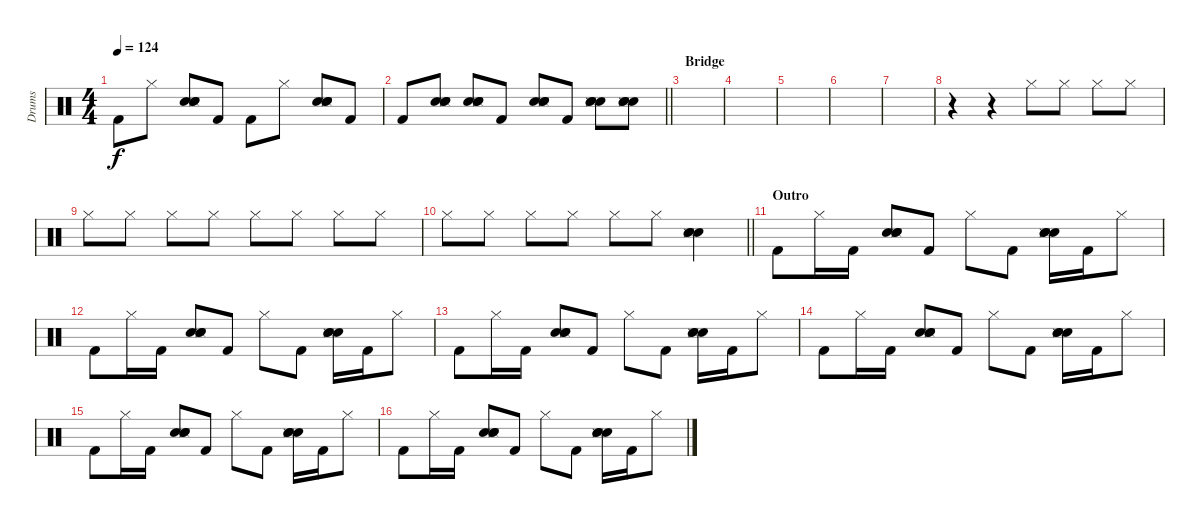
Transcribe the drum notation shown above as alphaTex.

\track ("Drums" "Drums") {instrument percussion}
\staff {score}
\articulation defaults
\ts (4 4)
\tempo 124
\clef neutral
\ks c "Kick (hit) 2".8{dy f} "Hi-Hat (closed)".8
("Snare (hit) 2" "Snare (side stick) 3" "Hand Clap (hit)" "Electric Snare (hit)").8 "Kick (hit) 2".8 "Kick (hit) 2".8 "Hi-Hat (closed)".8 ("Snare (hit) 2" "Snare (side stick) 3" "Hand Clap (hit)" "Electric Snare (hit)").8 "Kick (hit) 2".8 |
\barLineRight lightlight "Kick (hit) 2".8
("Snare (hit) 2" "Snare (side stick) 3" "Hand Clap (hit)" "Electric Snare (hit)").8 ("Snare (hit) 2" "Snare (side stick) 3" "Hand Clap (hit)" "Electric Snare (hit)").8 "Kick (hit) 2".8 ("Snare (hit) 2" "Snare (side stick) 3" "Hand Clap (hit)" "Electric Snare (hit)").8 "Kick (hit) 2".8 ("Snare (hit) 2" "Snare (side stick) 3" "Hand Clap (hit)" "Electric Snare (hit)").8 ("Snare (hit) 2" "Snare (side stick) 3" "Hand Clap (hit)" "Electric Snare (hit)").8 |
\section ("" "Bridge")
|
|
|
|
|
r.4 r.4 "Hi-Hat (closed)".8{volume 16} "Hi-Hat (closed)".8 "Hi-Hat (closed)".8 "Hi-Hat (closed)".8 |
"Hi-Hat (closed)".8 "Hi-Hat (closed)".8 "Hi-Hat (closed)".8 "Hi-Hat (closed)".8 "Hi-Hat (closed)".8 "Hi-Hat (closed)".8 "Hi-Hat (closed)".8 "Hi-Hat (closed)".8 |
\barLineRight lightlight "Hi-Hat (closed)".8 "Hi-Hat (closed)".8 "Hi-Hat (closed)".8 "Hi-Hat (closed)".8 "Hi-Hat (closed)".8 "Hi-Hat (closed)".8
("Snare (hit) 2" "Snare (side stick) 3" "Hand Clap (hit)" "Electric Snare (hit)").4 |
\section ("" "Outro")
"Kick (hit) 2".8 "Hi-Hat (closed)".16 "Kick (hit) 2".16 ("Snare (hit) 2" "Snare (side stick) 3" "Hand Clap (hit)" "Electric Snare (hit)").8 "Kick (hit) 2".8 "Hi-Hat (closed)".8 "Kick (hit) 2".8 ("Snare (hit) 2" "Snare (side stick) 3" "Hand Clap (hit)" "Electric Snare (hit)").16 "Kick (hit) 2".16 "Hi-Hat (closed)".8 |
"Kick (hit) 2".8 "Hi-Hat (closed)".16 "Kick (hit) 2".16 ("Snare (hit) 2" "Snare (side stick) 3" "Hand Clap (hit)" "Electric Snare (hit)").8 "Kick (hit) 2".8 "Hi-Hat (closed)".8 "Kick (hit) 2".8 ("Snare (hit) 2" "Snare (side stick) 3" "Hand Clap (hit)" "Electric Snare (hit)").16 "Kick (hit) 2".16 "Hi-Hat (closed)".8 |
"Kick (hit) 2".8 "Hi-Hat (closed)".16 "Kick (hit) 2".16 ("Snare (hit) 2" "Snare (side stick) 3" "Hand Clap (hit)" "Electric Snare (hit)").8 "Kick (hit) 2".8 "Hi-Hat (closed)".8 "Kick (hit) 2".8 ("Snare (hit) 2" "Snare (side stick) 3" "Hand Clap (hit)" "Electric Snare (hit)").16 "Kick (hit) 2".16 "Hi-Hat (closed)".8 |
"Kick (hit) 2".8 "Hi-Hat (closed)".16 "Kick (hit) 2".16 ("Snare (hit) 2" "Snare (side stick) 3" "Hand Clap (hit)" "Electric Snare (hit)").8 "Kick (hit) 2".8 "Hi-Hat (closed)".8 "Kick (hit) 2".8 ("Snare (hit) 2" "Snare (side stick) 3" "Hand Clap (hit)" "Electric Snare (hit)").16 "Kick (hit) 2".16 "Hi-Hat (closed)".8 |
"Kick (hit) 2".8 "Hi-Hat (closed)".16 "Kick (hit) 2".16 ("Snare (hit) 2" "Snare (side stick) 3" "Hand Clap (hit)" "Electric Snare (hit)").8 "Kick (hit) 2".8 "Hi-Hat (closed)".8 "Kick (hit) 2".8 ("Snare (hit) 2" "Snare (side stick) 3" "Hand Clap (hit)" "Electric Snare (hit)").16 "Kick (hit) 2".16 "Hi-Hat (closed)".8 |
"Kick (hit) 2".8 "Hi-Hat (closed)".16 "Kick (hit) 2".16 ("Snare (hit) 2" "Snare (side stick) 3" "Hand Clap (hit)" "Electric Snare (hit)").8 "Kick (hit) 2".8 "Hi-Hat (closed)".8 "Kick (hit) 2".8 ("Snare (hit) 2" "Snare (side stick) 3" "Hand Clap (hit)" "Electric Snare (hit)").16 "Kick (hit) 2".16 "Hi-Hat (closed)".8
